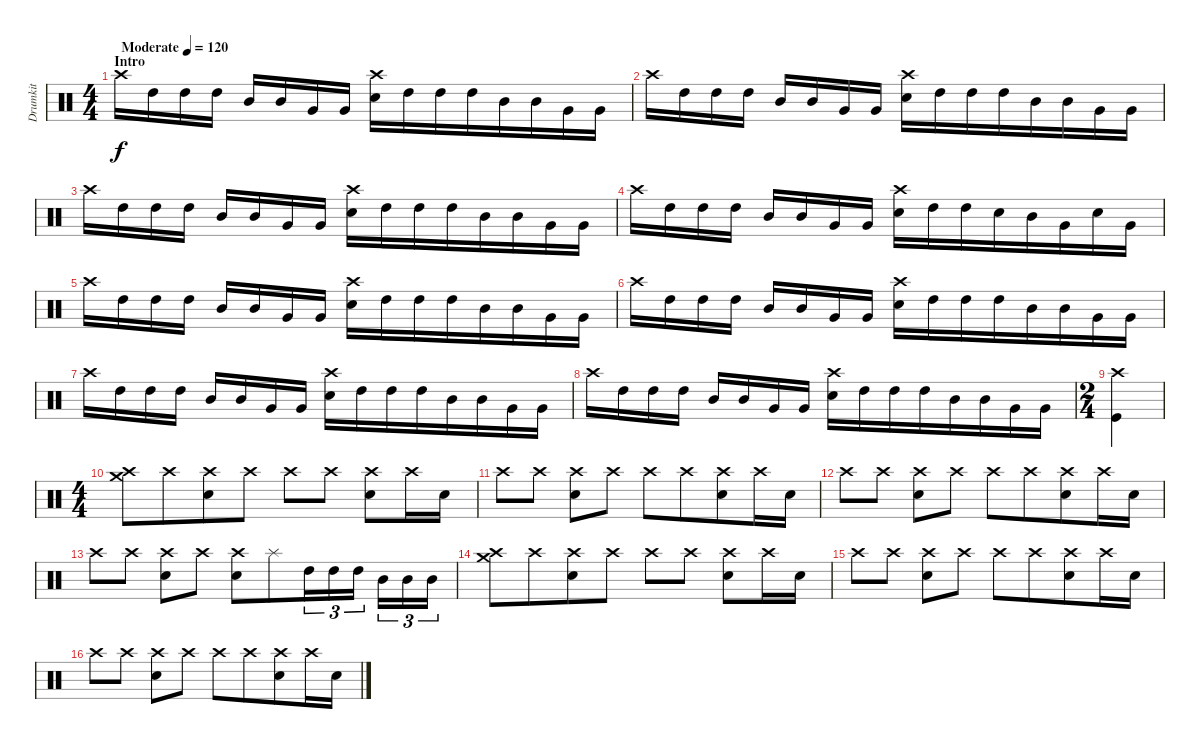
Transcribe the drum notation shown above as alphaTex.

\track ("Drumkit" "Drumkit") {instrument percussion}
\staff {score}
\articulation defaults
\ts (4 4)
\section ("" "Intro")
\tempo (120 "Moderate")
\clef neutral
\ks c "Crash high (hit)".16{dy f beam merge} "High Tom (hit)".16 "High Tom (hit)".16{beam merge} "High Tom (hit)".16 "Mid Tom (hit)".16 "Mid Tom (hit)".16 "Very Low Tom (hit)".16{beam merge} "Very Low Tom (hit)".16
("Crash high (hit)" "Electric Snare (hit)").16{beam merge} "High Tom (hit)".16{beam merge} "High Tom (hit)".16 "High Tom (hit)".16{beam merge} "Mid Tom (hit)".16 "Mid Tom (hit)".16 "Very Low Tom (hit)".16 "Very Low Tom (hit)".16 |
"Crash high (hit)".16{beam merge} "High Tom (hit)".16 "High Tom (hit)".16{beam merge} "High Tom (hit)".16 "Mid Tom (hit)".16 "Mid Tom (hit)".16 "Very Low Tom (hit)".16{beam merge} "Very Low Tom (hit)".16 ("Crash high (hit)" "Electric Snare (hit)").16{beam merge} "High Tom (hit)".16{beam merge} "High Tom (hit)".16 "High Tom (hit)".16{beam merge} "Mid Tom (hit)".16 "Mid Tom (hit)".16 "Very Low Tom (hit)".16 "Very Low Tom (hit)".16 |
"Crash high (hit)".16{beam merge} "High Tom (hit)".16 "High Tom (hit)".16{beam merge} "High Tom (hit)".16 "Mid Tom (hit)".16 "Mid Tom (hit)".16 "Very Low Tom (hit)".16{beam merge} "Very Low Tom (hit)".16 ("Crash high (hit)" "Electric Snare (hit)").16{beam merge} "High Tom (hit)".16{beam merge} "High Tom (hit)".16 "High Tom (hit)".16{beam merge} "Mid Tom (hit)".16 "Mid Tom (hit)".16 "Very Low Tom (hit)".16 "Very Low Tom (hit)".16 |
"Crash high (hit)".16{beam merge} "High Tom (hit)".16 "High Tom (hit)".16{beam merge} "High Tom (hit)".16 "Mid Tom (hit)".16 "Mid Tom (hit)".16 "Very Low Tom (hit)".16{beam merge} "Very Low Tom (hit)".16 ("Crash high (hit)" "Electric Snare (hit)").16{beam merge} "High Tom (hit)".16{beam merge} "High Tom (hit)".16 "Electric Snare (hit)".16{beam merge} "Mid Tom (hit)".16 "Very Low Tom (hit)".16 "Electric Snare (hit)".16 "Very Low Tom (hit)".16 |
"Crash high (hit)".16{beam merge} "High Tom (hit)".16 "High Tom (hit)".16{beam merge} "High Tom (hit)".16 "Mid Tom (hit)".16 "Mid Tom (hit)".16 "Very Low Tom (hit)".16{beam merge} "Very Low Tom (hit)".16 ("Crash high (hit)" "Electric Snare (hit)").16{beam merge} "High Tom (hit)".16{beam merge} "High Tom (hit)".16 "High Tom (hit)".16{beam merge} "Mid Tom (hit)".16 "Mid Tom (hit)".16 "Very Low Tom (hit)".16 "Very Low Tom (hit)".16 |
"Crash high (hit)".16{beam merge} "High Tom (hit)".16 "High Tom (hit)".16{beam merge} "High Tom (hit)".16 "Mid Tom (hit)".16 "Mid Tom (hit)".16 "Very Low Tom (hit)".16{beam merge} "Very Low Tom (hit)".16 ("Crash high (hit)" "Electric Snare (hit)").16{beam merge} "High Tom (hit)".16{beam merge} "High Tom (hit)".16 "High Tom (hit)".16{beam merge} "Mid Tom (hit)".16 "Mid Tom (hit)".16 "Very Low Tom (hit)".16 "Very Low Tom (hit)".16 |
"Crash high (hit)".16{beam merge} "High Tom (hit)".16 "High Tom (hit)".16{beam merge} "High Tom (hit)".16 "Mid Tom (hit)".16 "Mid Tom (hit)".16 "Very Low Tom (hit)".16{beam merge} "Very Low Tom (hit)".16 ("Crash high (hit)" "Electric Snare (hit)").16{beam merge} "High Tom (hit)".16{beam merge} "High Tom (hit)".16 "High Tom (hit)".16{beam merge} "Mid Tom (hit)".16 "Mid Tom (hit)".16 "Very Low Tom (hit)".16 "Very Low Tom (hit)".16 |
"Crash high (hit)".16{beam merge} "High Tom (hit)".16 "High Tom (hit)".16{beam merge} "High Tom (hit)".16 "Mid Tom (hit)".16 "Mid Tom (hit)".16 "Very Low Tom (hit)".16{beam merge} "Very Low Tom (hit)".16 ("Crash high (hit)" "Electric Snare (hit)").16{beam merge} "High Tom (hit)".16{beam merge} "High Tom (hit)".16 "High Tom (hit)".16{beam merge} "Mid Tom (hit)".16 "Mid Tom (hit)".16 "Very Low Tom (hit)".16 "Very Low Tom (hit)".16 |
\ts (2 4)
("Crash high (hit)" "Kick (hit)").4 |
\ts (4 4)
("Crash medium (hit)" "Crash high (hit)").8 "Crash high (hit)".8{beam merge} ("Crash high (hit)" "Electric Snare (hit)").8 "Crash high (hit)".8 "Crash high (hit)".8 "Crash high (hit)".8 ("Crash high (hit)" "Electric Snare (hit)").8{beam merge} "Crash high (hit)".16 "Electric Snare (hit)".16 |
"Crash high (hit)".8{beam merge} "Crash high (hit)".8 ("Crash high (hit)" "Electric Snare (hit)").8 "Crash high (hit)".8 "Crash high (hit)".8 "Crash high (hit)".8{beam merge} ("Crash high (hit)" "Electric Snare (hit)").8 "Crash high (hit)".16{beam merge} "Electric Snare (hit)".16 |
"Crash high (hit)".8{beam merge} "Crash high (hit)".8 ("Crash high (hit)" "Electric Snare (hit)").8 "Crash high (hit)".8 "Crash high (hit)".8 "Crash high (hit)".8{beam merge} ("Crash high (hit)" "Electric Snare (hit)").8 "Crash high (hit)".16{beam merge} "Electric Snare (hit)".16 |
"Crash high (hit)".8{beam merge} "Crash high (hit)".8 ("Crash high (hit)" "Electric Snare (hit)").8 "Crash high (hit)".8 ("Crash high (hit)" "Electric Snare (hit)").8 "Splash (hit)".8{beam merge} "High Tom (hit)".16{tu (3 2)} "High Tom (hit)".16{tu (3 2) beam merge} "High Tom (hit)".16{tu (3 2) beam splitsecondary} "Mid Tom (hit)".16{tu (3 2) beam merge} "Mid Tom (hit)".16{tu (3 2)} "Mid Tom (hit)".16{tu (3 2)} |
("Crash medium (hit)" "Crash high (hit)").8 "Crash high (hit)".8{beam merge} ("Crash high (hit)" "Electric Snare (hit)").8 "Crash high (hit)".8 "Crash high (hit)".8 "Crash high (hit)".8 ("Crash high (hit)" "Electric Snare (hit)").8{beam merge} "Crash high (hit)".16 "Electric Snare (hit)".16 |
"Crash high (hit)".8{beam merge} "Crash high (hit)".8 ("Crash high (hit)" "Electric Snare (hit)").8 "Crash high (hit)".8 "Crash high (hit)".8 "Crash high (hit)".8{beam merge} ("Crash high (hit)" "Electric Snare (hit)").8 "Crash high (hit)".16{beam merge} "Electric Snare (hit)".16 |
"Crash high (hit)".8{beam merge} "Crash high (hit)".8 ("Crash high (hit)" "Electric Snare (hit)").8 "Crash high (hit)".8 "Crash high (hit)".8 "Crash high (hit)".8{beam merge} ("Crash high (hit)" "Electric Snare (hit)").8 "Crash high (hit)".16{beam merge} "Electric Snare (hit)".16
